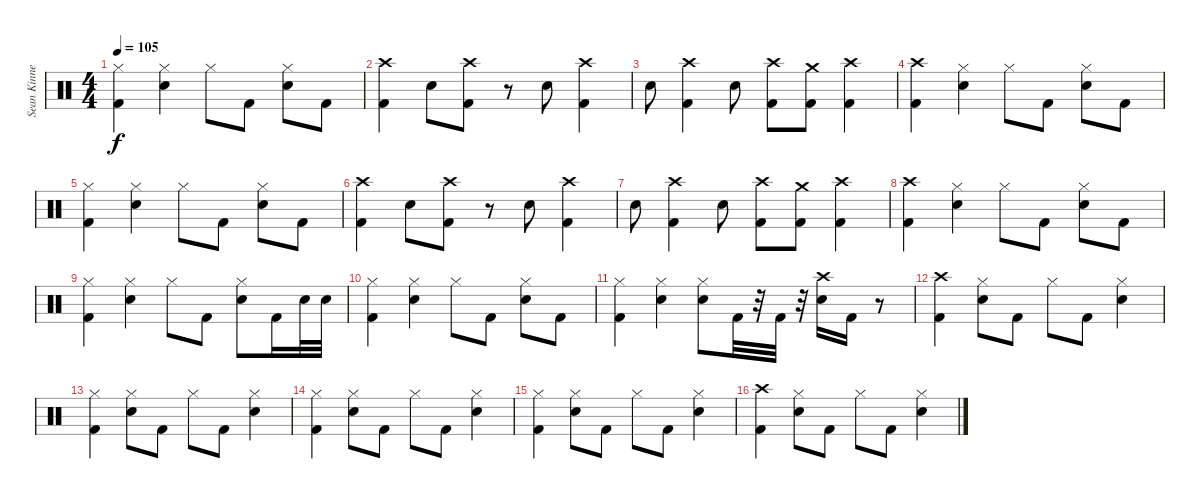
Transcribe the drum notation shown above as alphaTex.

\track ("Sean Kinney- Drums" "Sean Kinne") {instrument percussion}
\staff {score}
\articulation defaults
\ts (4 4)
\tempo 105
\clef neutral
\ks c
("Hi-Hat (closed)" "Kick (hit) 2").4{dy f} ("Hi-Hat (closed)" "Electric Snare (hit)").4 "Hi-Hat (closed)".8 "Kick (hit) 2".8 ("Hi-Hat (closed)" "Electric Snare (hit)").8 "Kick (hit) 2".8 |
("Crash high (hit)" "Kick (hit) 2").4 "Electric Snare (hit)".8 ("Crash high (hit)" "Kick (hit) 2").8 r.8 "Electric Snare (hit)".8 ("Crash high (hit)" "Kick (hit) 2").4 |
"Electric Snare (hit)".8 ("Crash high (hit)" "Kick (hit) 2").4 "Electric Snare (hit)".8 ("Crash high (hit)" "Kick (hit) 2").8 ("Crash medium (hit)" "Kick (hit) 2").8 ("Crash high (hit)" "Kick (hit) 2").4 |
("Crash high (hit)" "Kick (hit) 2").4 ("Hi-Hat (closed)" "Electric Snare (hit)").4 "Hi-Hat (closed)".8 "Kick (hit) 2".8 ("Hi-Hat (closed)" "Electric Snare (hit)").8 "Kick (hit) 2".8 |
("Hi-Hat (closed)" "Kick (hit) 2").4 ("Hi-Hat (closed)" "Electric Snare (hit)").4 "Hi-Hat (closed)".8 "Kick (hit) 2".8 ("Hi-Hat (closed)" "Electric Snare (hit)").8 "Kick (hit) 2".8 |
("Crash high (hit)" "Kick (hit) 2").4 "Electric Snare (hit)".8 ("Crash high (hit)" "Kick (hit) 2").8 r.8 "Electric Snare (hit)".8 ("Crash high (hit)" "Kick (hit) 2").4 |
"Electric Snare (hit)".8 ("Crash high (hit)" "Kick (hit) 2").4 "Electric Snare (hit)".8 ("Crash high (hit)" "Kick (hit) 2").8 ("Crash medium (hit)" "Kick (hit) 2").8 ("Crash high (hit)" "Kick (hit) 2").4 |
("Crash high (hit)" "Kick (hit) 2").4 ("Hi-Hat (closed)" "Electric Snare (hit)").4 "Hi-Hat (closed)".8 "Kick (hit) 2".8 ("Hi-Hat (closed)" "Electric Snare (hit)").8 "Kick (hit) 2".8 |
("Hi-Hat (closed)" "Kick (hit) 2").4 ("Hi-Hat (closed)" "Electric Snare (hit)").4 "Hi-Hat (closed)".8 "Kick (hit) 2".8 ("Hi-Hat (closed)" "Electric Snare (hit)").8 "Kick (hit) 2".16 "Electric Snare (hit)".32 "Electric Snare (hit)".32 |
("Hi-Hat (closed)" "Kick (hit) 2").4 ("Hi-Hat (closed)" "Electric Snare (hit)").4 "Hi-Hat (closed)".8 "Kick (hit) 2".8 ("Hi-Hat (closed)" "Electric Snare (hit)").8 "Kick (hit) 2".8 |
("Hi-Hat (closed)" "Kick (hit) 2").4 ("Hi-Hat (closed)" "Electric Snare (hit)").4 ("Hi-Hat (closed)" "Electric Snare (hit)").8 "Kick (hit) 2".32 r.32 "Kick (hit) 2".32 r.32 ("Crash high (hit)" "Electric Snare (hit)").16 "Kick (hit) 2".16 r.8 |
("Crash high (hit)" "Kick (hit) 2").4 ("Hi-Hat (closed)" "Electric Snare (hit)").8 "Kick (hit) 2".8 "Hi-Hat (closed)".8 "Kick (hit) 2".8 ("Hi-Hat (closed)" "Electric Snare (hit)").4 |
("Hi-Hat (closed)" "Kick (hit) 2").4 ("Hi-Hat (closed)" "Electric Snare (hit)").8 "Kick (hit) 2".8 "Hi-Hat (closed)".8 "Kick (hit) 2".8 ("Hi-Hat (closed)" "Electric Snare (hit)").4 |
("Hi-Hat (closed)" "Kick (hit) 2").4 ("Hi-Hat (closed)" "Electric Snare (hit)").8 "Kick (hit) 2".8 "Hi-Hat (closed)".8 "Kick (hit) 2".8 ("Hi-Hat (closed)" "Electric Snare (hit)").4 |
("Hi-Hat (closed)" "Kick (hit) 2").4 ("Hi-Hat (closed)" "Electric Snare (hit)").8 "Kick (hit) 2".8 "Hi-Hat (closed)".8 "Kick (hit) 2".8 ("Hi-Hat (closed)" "Electric Snare (hit)").4 |
("Crash high (hit)" "Kick (hit) 2").4 ("Hi-Hat (closed)" "Electric Snare (hit)").8 "Kick (hit) 2".8 "Hi-Hat (closed)".8 "Kick (hit) 2".8 ("Hi-Hat (closed)" "Electric Snare (hit)").4
